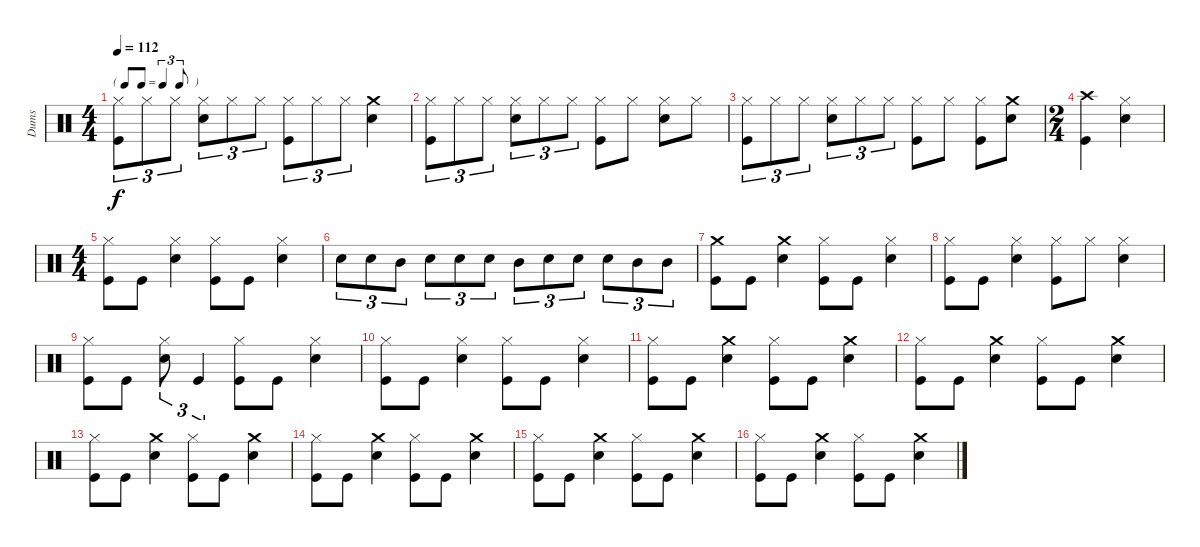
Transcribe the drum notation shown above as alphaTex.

\track ("Dums" "Dums") {instrument percussion}
\staff {score}
\articulation defaults
\ts (4 4)
\tf triplet8th
\tempo 112
\clef neutral
\ks c
("Kick (hit)" "Hi-Hat (closed)").8{tu (3 2) dy f} "Hi-Hat (closed)".8{tu (3 2)} "Hi-Hat (closed)".8{tu (3 2)} ("Electric Snare (hit)" "Hi-Hat (closed)").8{tu (3 2)} "Hi-Hat (closed)".8{tu (3 2)} "Hi-Hat (closed)".8{tu (3 2)} ("Kick (hit)" "Hi-Hat (closed)").8{tu (3 2)} "Hi-Hat (closed)".8{tu (3 2)} "Hi-Hat (closed)".8{tu (3 2)} ("Electric Snare (hit)" "Crash medium (hit)").4 |
("Kick (hit)" "Hi-Hat (closed)").8{tu (3 2)} "Hi-Hat (closed)".8{tu (3 2)} "Hi-Hat (closed)".8{tu (3 2)} ("Electric Snare (hit)" "Hi-Hat (closed)").8{tu (3 2)} "Hi-Hat (closed)".8{tu (3 2)} "Hi-Hat (closed)".8{tu (3 2)} ("Kick (hit)" "Hi-Hat (closed)").8 "Hi-Hat (closed)".8 ("Electric Snare (hit)" "Hi-Hat (closed)").8 "Hi-Hat (closed)".8 |
("Kick (hit)" "Hi-Hat (closed)").8{tu (3 2)} "Hi-Hat (closed)".8{tu (3 2)} "Hi-Hat (closed)".8{tu (3 2)} ("Electric Snare (hit)" "Hi-Hat (closed)").8{tu (3 2)} "Hi-Hat (closed)".8{tu (3 2)} "Hi-Hat (closed)".8{tu (3 2)} ("Kick (hit)" "Hi-Hat (closed)").8 "Hi-Hat (closed)".8 ("Kick (hit)" "Hi-Hat (closed)").8 ("Electric Snare (hit)" "Crash medium (hit)").8 |
\ts (2 4)
("Kick (hit)" "Crash high (hit)").4 ("Electric Snare (hit)" "Hi-Hat (closed)").4 |
\ts (4 4)
("Kick (hit)" "Hi-Hat (closed)").8 "Kick (hit)".8 ("Electric Snare (hit)" "Hi-Hat (closed)").4 ("Kick (hit)" "Hi-Hat (closed)").8 "Kick (hit)".8 ("Electric Snare (hit)" "Hi-Hat (closed)").4 |
"Electric Snare (hit)".8{tu (3 2)} "Electric Snare (hit)".8{tu (3 2)} "Mid Tom (hit)".8{tu (3 2)} "Electric Snare (hit)".8{tu (3 2)} "Electric Snare (hit)".8{tu (3 2)} "Electric Snare (hit)".8{tu (3 2)} "Mid Tom (hit)".8{tu (3 2)} "Electric Snare (hit)".8{tu (3 2)} "Electric Snare (hit)".8{tu (3 2)} "Electric Snare (hit)".8{tu (3 2)} "Mid Tom (hit)".8{tu (3 2)} "Mid Tom (hit)".8{tu (3 2)} |
("Kick (hit)" "Crash medium (hit)").8 "Kick (hit)".8 ("Electric Snare (hit)" "Crash medium (hit)").4 ("Kick (hit)" "Hi-Hat (closed)").8 "Kick (hit)".8 ("Electric Snare (hit)" "Hi-Hat (closed)").4 |
("Kick (hit)" "Hi-Hat (closed)").8 "Kick (hit)".8 ("Electric Snare (hit)" "Hi-Hat (closed)").4 ("Kick (hit)" "Hi-Hat (closed)").8 "Hi-Hat (closed)".8 ("Electric Snare (hit)" "Hi-Hat (closed)").4 |
("Kick (hit)" "Hi-Hat (closed)").8 "Kick (hit)".8 ("Electric Snare (hit)" "Hi-Hat (closed)").8{tu (3 2)} "Kick (hit)".4{tu (3 2)} ("Kick (hit)" "Hi-Hat (closed)").8 "Kick (hit)".8 ("Electric Snare (hit)" "Hi-Hat (closed)").4 |
("Kick (hit)" "Hi-Hat (closed)").8 "Kick (hit)".8 ("Electric Snare (hit)" "Hi-Hat (closed)").4 ("Kick (hit)" "Hi-Hat (closed)").8 "Kick (hit)".8 ("Electric Snare (hit)" "Hi-Hat (closed)").4 |
("Kick (hit)" "Hi-Hat (closed)").8 "Kick (hit)".8 ("Electric Snare (hit)" "Crash medium (hit)").4 ("Kick (hit)" "Hi-Hat (closed)").8 "Kick (hit)".8 ("Electric Snare (hit)" "Crash medium (hit)").4 |
("Kick (hit)" "Hi-Hat (closed)").8 "Kick (hit)".8 ("Electric Snare (hit)" "Crash medium (hit)").4 ("Kick (hit)" "Hi-Hat (closed)").8 "Kick (hit)".8 ("Electric Snare (hit)" "Crash medium (hit)").4 |
("Kick (hit)" "Hi-Hat (closed)").8 "Kick (hit)".8 ("Electric Snare (hit)" "Crash medium (hit)").4 ("Kick (hit)" "Hi-Hat (closed)").8 "Kick (hit)".8 ("Electric Snare (hit)" "Crash medium (hit)").4 |
("Kick (hit)" "Hi-Hat (closed)").8 "Kick (hit)".8 ("Electric Snare (hit)" "Crash medium (hit)").4 ("Kick (hit)" "Hi-Hat (closed)").8 "Kick (hit)".8 ("Electric Snare (hit)" "Crash medium (hit)").4 |
("Kick (hit)" "Hi-Hat (closed)").8 "Kick (hit)".8 ("Electric Snare (hit)" "Crash medium (hit)").4 ("Kick (hit)" "Hi-Hat (closed)").8 "Kick (hit)".8 ("Electric Snare (hit)" "Crash medium (hit)").4 |
("Kick (hit)" "Hi-Hat (closed)").8 "Kick (hit)".8 ("Electric Snare (hit)" "Crash medium (hit)").4 ("Kick (hit)" "Hi-Hat (closed)").8 "Kick (hit)".8 ("Electric Snare (hit)" "Crash medium (hit)").4
